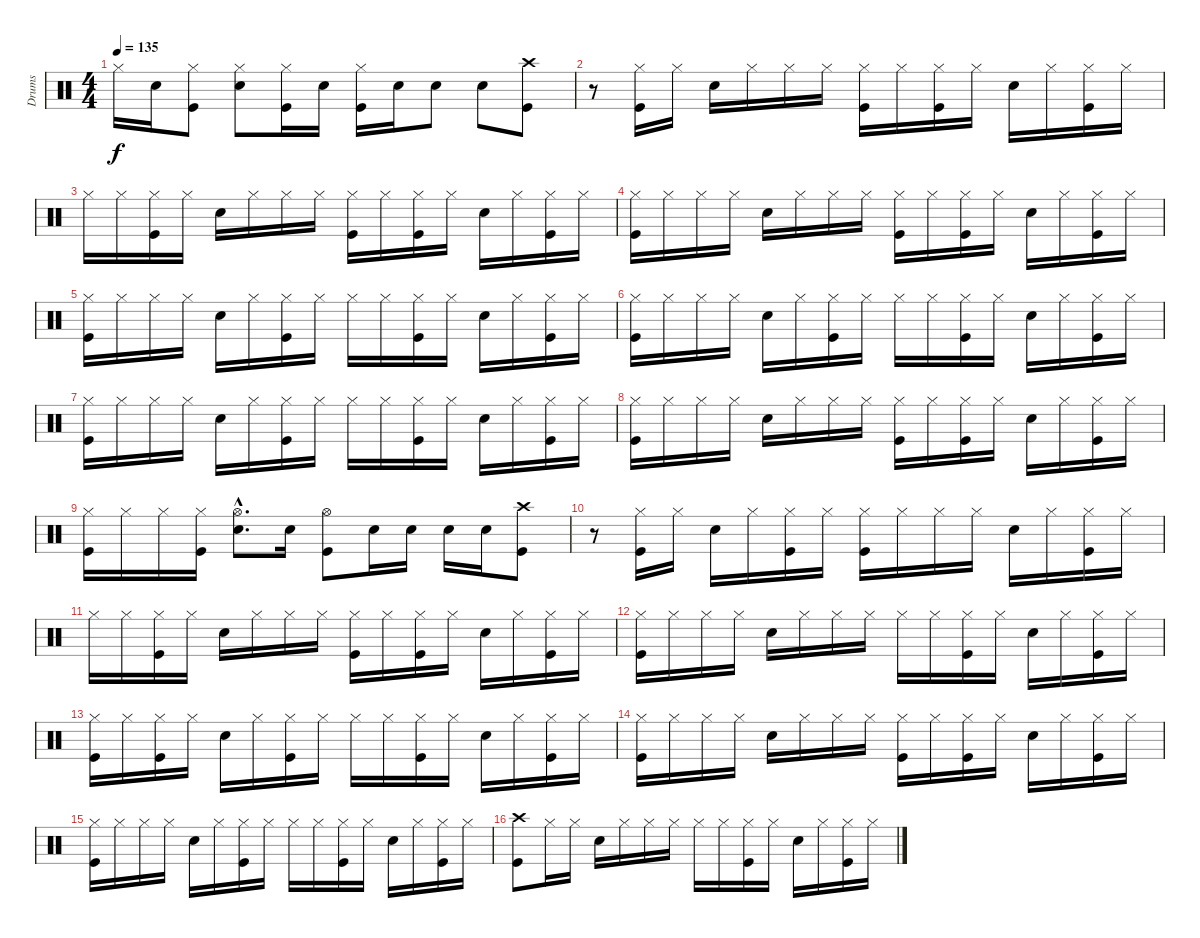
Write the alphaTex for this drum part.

\track ("Drums" "Drums") {instrument percussion}
\staff {score}
\articulation defaults
\ts (4 4)
\tempo 135
\clef neutral
\ks c "Hi-Hat (closed)".16{dy f} "Electric Snare (hit)".16
("Kick (hit)" "Hi-Hat (closed)").8 ("Electric Snare (hit)" "Hi-Hat (closed)").8 ("Kick (hit)" "Hi-Hat (closed)").16 "Electric Snare (hit)".16 ("Kick (hit)" "Hi-Hat (closed)").16 "Electric Snare (hit)".16 "Electric Snare (hit)".8 "Electric Snare (hit)".8 ("Kick (hit)" "Crash high (hit)").8 |
r.8 ("Kick (hit)" "Hi-Hat (closed)").16 "Hi-Hat (closed)".16 "Electric Snare (hit)".16 "Hi-Hat (closed)".16 "Hi-Hat (closed)".16 "Hi-Hat (closed)".16 ("Kick (hit)" "Hi-Hat (closed)").16 "Hi-Hat (closed)".16 ("Kick (hit)" "Hi-Hat (closed)").16 "Hi-Hat (closed)".16 "Electric Snare (hit)".16 "Hi-Hat (closed)".16 ("Kick (hit)" "Hi-Hat (closed)").16 "Hi-Hat (closed)".16 |
"Hi-Hat (closed)".16 "Hi-Hat (closed)".16 ("Kick (hit)" "Hi-Hat (closed)").16 "Hi-Hat (closed)".16 "Electric Snare (hit)".16 "Hi-Hat (closed)".16 "Hi-Hat (closed)".16 "Hi-Hat (closed)".16 ("Kick (hit)" "Hi-Hat (closed)").16 "Hi-Hat (closed)".16 ("Kick (hit)" "Hi-Hat (closed)").16 "Hi-Hat (closed)".16 "Electric Snare (hit)".16 "Hi-Hat (closed)".16 ("Kick (hit)" "Hi-Hat (closed)").16 "Hi-Hat (closed)".16 |
("Kick (hit)" "Hi-Hat (closed)").16 "Hi-Hat (closed)".16 "Hi-Hat (closed)".16 "Hi-Hat (closed)".16 "Electric Snare (hit)".16 "Hi-Hat (closed)".16 "Hi-Hat (closed)".16 "Hi-Hat (closed)".16 ("Kick (hit)" "Hi-Hat (closed)").16 "Hi-Hat (closed)".16 ("Kick (hit)" "Hi-Hat (closed)").16 "Hi-Hat (closed)".16 "Electric Snare (hit)".16 "Hi-Hat (closed)".16 ("Kick (hit)" "Hi-Hat (closed)").16 "Hi-Hat (closed)".16 |
("Kick (hit)" "Hi-Hat (closed)").16 "Hi-Hat (closed)".16 "Hi-Hat (closed)".16 "Hi-Hat (closed)".16 "Electric Snare (hit)".16 "Hi-Hat (closed)".16 ("Kick (hit)" "Hi-Hat (closed)").16 "Hi-Hat (closed)".16 "Hi-Hat (closed)".16 "Hi-Hat (closed)".16 ("Kick (hit)" "Hi-Hat (closed)").16 "Hi-Hat (closed)".16 "Electric Snare (hit)".16 "Hi-Hat (closed)".16 ("Kick (hit)" "Hi-Hat (closed)").16 "Hi-Hat (closed)".16 |
("Kick (hit)" "Hi-Hat (closed)").16 "Hi-Hat (closed)".16 "Hi-Hat (closed)".16 "Hi-Hat (closed)".16 "Electric Snare (hit)".16 "Hi-Hat (closed)".16 ("Kick (hit)" "Hi-Hat (closed)").16 "Hi-Hat (closed)".16 "Hi-Hat (closed)".16 "Hi-Hat (closed)".16 ("Kick (hit)" "Hi-Hat (closed)").16 "Hi-Hat (closed)".16 "Electric Snare (hit)".16 "Hi-Hat (closed)".16 ("Kick (hit)" "Hi-Hat (closed)").16 "Hi-Hat (closed)".16 |
("Kick (hit)" "Hi-Hat (closed)").16 "Hi-Hat (closed)".16 "Hi-Hat (closed)".16 "Hi-Hat (closed)".16 "Electric Snare (hit)".16 "Hi-Hat (closed)".16 ("Kick (hit)" "Hi-Hat (closed)").16 "Hi-Hat (closed)".16 "Hi-Hat (closed)".16 "Hi-Hat (closed)".16 ("Kick (hit)" "Hi-Hat (closed)").16 "Hi-Hat (closed)".16 "Electric Snare (hit)".16 "Hi-Hat (closed)".16 ("Kick (hit)" "Hi-Hat (closed)").16 "Hi-Hat (closed)".16 |
("Kick (hit)" "Hi-Hat (closed)").16 "Hi-Hat (closed)".16 "Hi-Hat (closed)".16 "Hi-Hat (closed)".16 "Electric Snare (hit)".16 "Hi-Hat (closed)".16 "Hi-Hat (closed)".16 "Hi-Hat (closed)".16 ("Kick (hit)" "Hi-Hat (closed)").16 "Hi-Hat (closed)".16 ("Kick (hit)" "Hi-Hat (closed)").16 "Hi-Hat (closed)".16 "Electric Snare (hit)".16 "Hi-Hat (closed)".16 ("Kick (hit)" "Hi-Hat (closed)").16 "Hi-Hat (closed)".16 |
("Kick (hit)" "Hi-Hat (closed)").16 "Hi-Hat (closed)".16 "Hi-Hat (closed)".16 ("Kick (hit)" "Hi-Hat (closed)").16 ("Electric Snare (hit)"{hac} "Hi-Hat (open)"{hac}).8{d} "Electric Snare (hit)".16 ("Kick (hit)" "Hi-Hat (open)").8 "Electric Snare (hit)".16 "Electric Snare (hit)".16 "Electric Snare (hit)".16 "Electric Snare (hit)".16 ("Kick (hit)" "Crash high (hit)").8 |
r.8 ("Kick (hit)" "Hi-Hat (closed)").16 "Hi-Hat (closed)".16 "Electric Snare (hit)".16 "Hi-Hat (closed)".16 ("Kick (hit)" "Hi-Hat (closed)").16 "Hi-Hat (closed)".16 ("Kick (hit)" "Hi-Hat (closed)").16 "Hi-Hat (closed)".16 "Hi-Hat (closed)".16 "Hi-Hat (closed)".16 "Electric Snare (hit)".16 "Hi-Hat (closed)".16 ("Kick (hit)" "Hi-Hat (closed)").16 "Hi-Hat (closed)".16 |
"Hi-Hat (closed)".16 "Hi-Hat (closed)".16 ("Kick (hit)" "Hi-Hat (closed)").16 "Hi-Hat (closed)".16 "Electric Snare (hit)".16 "Hi-Hat (closed)".16 "Hi-Hat (closed)".16 "Hi-Hat (closed)".16 ("Kick (hit)" "Hi-Hat (closed)").16 "Hi-Hat (closed)".16 ("Kick (hit)" "Hi-Hat (closed)").16 "Hi-Hat (closed)".16 "Electric Snare (hit)".16 "Hi-Hat (closed)".16 ("Kick (hit)" "Hi-Hat (closed)").16 "Hi-Hat (closed)".16 |
("Kick (hit)" "Hi-Hat (closed)").16 "Hi-Hat (closed)".16 "Hi-Hat (closed)".16 "Hi-Hat (closed)".16 "Electric Snare (hit)".16 "Hi-Hat (closed)".16 "Hi-Hat (closed)".16 "Hi-Hat (closed)".16 "Hi-Hat (closed)".16 "Hi-Hat (closed)".16 ("Kick (hit)" "Hi-Hat (closed)").16 "Hi-Hat (closed)".16 "Electric Snare (hit)".16 "Hi-Hat (closed)".16 ("Kick (hit)" "Hi-Hat (closed)").16 "Hi-Hat (closed)".16 |
("Kick (hit)" "Hi-Hat (closed)").16 "Hi-Hat (closed)".16 ("Kick (hit)" "Hi-Hat (closed)").16 "Hi-Hat (closed)".16 "Electric Snare (hit)".16 "Hi-Hat (closed)".16 ("Kick (hit)" "Hi-Hat (closed)").16 "Hi-Hat (closed)".16 "Hi-Hat (closed)".16 "Hi-Hat (closed)".16 ("Kick (hit)" "Hi-Hat (closed)").16 "Hi-Hat (closed)".16 "Electric Snare (hit)".16 "Hi-Hat (closed)".16 ("Kick (hit)" "Hi-Hat (closed)").16 "Hi-Hat (closed)".16 |
("Kick (hit)" "Hi-Hat (closed)").16 "Hi-Hat (closed)".16 "Hi-Hat (closed)".16 "Hi-Hat (closed)".16 "Electric Snare (hit)".16 "Hi-Hat (closed)".16 "Hi-Hat (closed)".16 "Hi-Hat (closed)".16 ("Kick (hit)" "Hi-Hat (closed)").16 "Hi-Hat (closed)".16 ("Kick (hit)" "Hi-Hat (closed)").16 "Hi-Hat (closed)".16 "Electric Snare (hit)".16 "Hi-Hat (closed)".16 ("Kick (hit)" "Hi-Hat (closed)").16 "Hi-Hat (closed)".16 |
("Kick (hit)" "Hi-Hat (closed)").16 "Hi-Hat (closed)".16 "Hi-Hat (closed)".16 "Hi-Hat (closed)".16 "Electric Snare (hit)".16 "Hi-Hat (closed)".16 ("Kick (hit)" "Hi-Hat (closed)").16 "Hi-Hat (closed)".16 "Hi-Hat (closed)".16 "Hi-Hat (closed)".16 ("Kick (hit)" "Hi-Hat (closed)").16 "Hi-Hat (closed)".16 "Electric Snare (hit)".16 "Hi-Hat (closed)".16 ("Kick (hit)" "Hi-Hat (closed)").16 "Hi-Hat (closed)".16 |
("Kick (hit)" "Crash high (hit)").8 "Hi-Hat (closed)".16 "Hi-Hat (closed)".16 "Electric Snare (hit)".16 "Hi-Hat (closed)".16 "Hi-Hat (closed)".16 "Hi-Hat (closed)".16 "Hi-Hat (closed)".16 "Hi-Hat (closed)".16 ("Kick (hit)" "Hi-Hat (closed)").16 "Hi-Hat (closed)".16 "Electric Snare (hit)".16 "Hi-Hat (closed)".16 ("Kick (hit)" "Hi-Hat (closed)").16 "Hi-Hat (closed)".16
